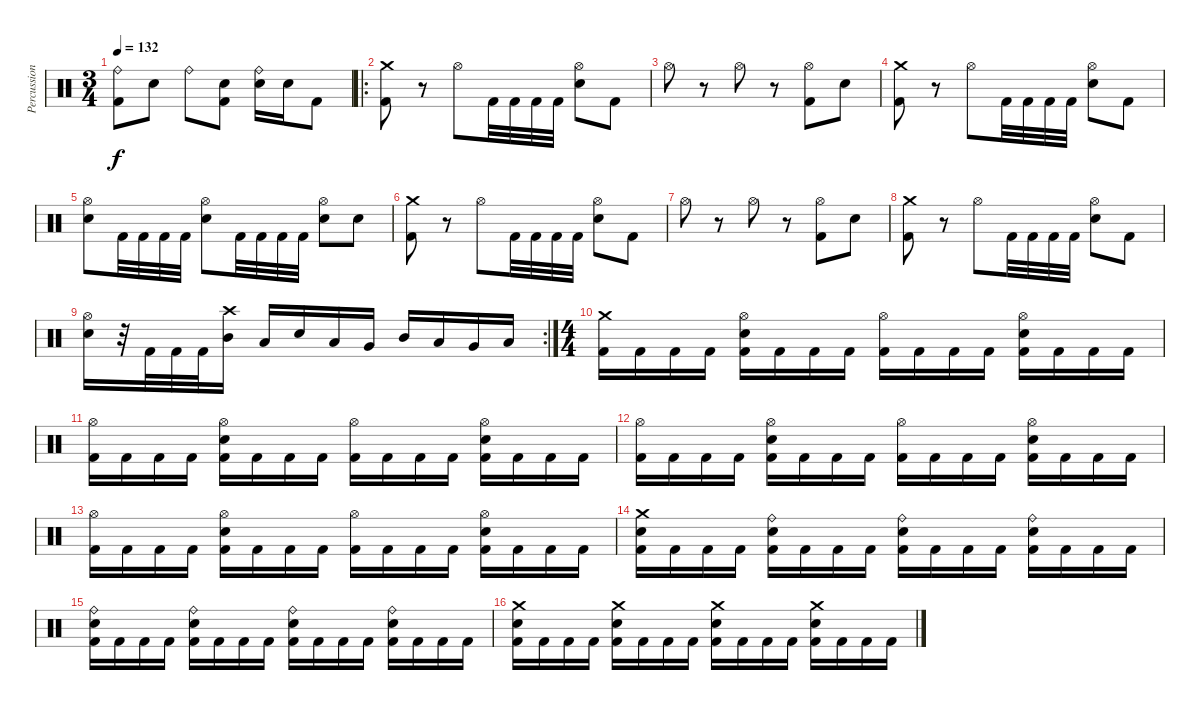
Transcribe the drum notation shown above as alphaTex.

\track ("Percussion" "Percussion") {instrument percussion}
\staff {score}
\articulation defaults
\ts (3 4)
\tempo 132
\clef neutral
\ks c
("Ride (bell)" "Kick (hit) 2").8{dy f} "Electric Snare (hit)".8 "Ride (bell)".8 ("Electric Snare (hit)" "Kick (hit) 2").8 ("Ride (bell)" "Electric Snare (hit)").16 "Electric Snare (hit)".16 "Kick (hit) 2".8 |
\ro
("Crash medium (hit)" "Kick (hit) 2").8 r.8 "Hi-Hat (open)".8 "Kick (hit) 2".32 "Kick (hit) 2".32 "Kick (hit) 2".32 "Kick (hit) 2".32 ("Hi-Hat (open)" "Electric Snare (hit)").8 "Kick (hit) 2".8 |
"Hi-Hat (open)".8 r.8 "Hi-Hat (open)".8 r.8 ("Hi-Hat (open)" "Kick (hit) 2").8 "Electric Snare (hit)".8 |
("Crash medium (hit)" "Kick (hit) 2").8 r.8 "Hi-Hat (open)".8 "Kick (hit) 2".32 "Kick (hit) 2".32 "Kick (hit) 2".32 "Kick (hit) 2".32 ("Hi-Hat (open)" "Electric Snare (hit)").8 "Kick (hit) 2".8 |
("Hi-Hat (open)" "Electric Snare (hit)").8 "Kick (hit) 2".32 "Kick (hit) 2".32 "Kick (hit) 2".32 "Kick (hit) 2".32 ("Hi-Hat (open)" "Electric Snare (hit)").8 "Kick (hit) 2".32 "Kick (hit) 2".32 "Kick (hit) 2".32 "Kick (hit) 2".32 ("Hi-Hat (open)" "Electric Snare (hit)").8 "Electric Snare (hit)".8 |
("Crash medium (hit)" "Kick (hit) 2").8 r.8 "Hi-Hat (open)".8 "Kick (hit) 2".32 "Kick (hit) 2".32 "Kick (hit) 2".32 "Kick (hit) 2".32 ("Hi-Hat (open)" "Electric Snare (hit)").8 "Kick (hit) 2".8 |
"Hi-Hat (open)".8 r.8 "Hi-Hat (open)".8 r.8 ("Hi-Hat (open)" "Kick (hit) 2").8 "Electric Snare (hit)".8 |
("Crash medium (hit)" "Kick (hit) 2").8 r.8 "Hi-Hat (open)".8 "Kick (hit) 2".32 "Kick (hit) 2".32 "Kick (hit) 2".32 "Kick (hit) 2".32 ("Hi-Hat (open)" "Electric Snare (hit)").8 "Kick (hit) 2".8 |
\rc 2
("Hi-Hat (open)" "Electric Snare (hit)").16 r.32 "Kick (hit) 2".32 "Kick (hit) 2".32 "Kick (hit) 2".32 ("Crash high (hit)" "Mid Tom (hit)").16 "Low Tom (hit)".16 "Electric Snare (hit)".16 "Low Tom (hit)".16 "Very Low Tom (hit)".16 "Mid Tom (hit)".16 "Low Tom (hit)".16 "Very Low Tom (hit)".16 "Low Floor Tom (hit)".16 |
\ts (4 4)
("Crash medium (hit)" "Kick (hit) 2").16 "Kick (hit) 2".16 "Kick (hit) 2".16 "Kick (hit) 2".16 ("Hi-Hat (open)" "Electric Snare (hit)" "Kick (hit) 2").16 "Kick (hit) 2".16 "Kick (hit) 2".16 "Kick (hit) 2".16 ("Hi-Hat (open)" "Kick (hit) 2").16 "Kick (hit) 2".16 "Kick (hit) 2".16 "Kick (hit) 2".16 ("Hi-Hat (open)" "Electric Snare (hit)" "Kick (hit) 2").16 "Kick (hit) 2".16 "Kick (hit) 2".16 "Kick (hit) 2".16 |
("Hi-Hat (open)" "Kick (hit) 2").16 "Kick (hit) 2".16 "Kick (hit) 2".16 "Kick (hit) 2".16 ("Hi-Hat (open)" "Electric Snare (hit)" "Kick (hit) 2").16 "Kick (hit) 2".16 "Kick (hit) 2".16 "Kick (hit) 2".16 ("Hi-Hat (open)" "Kick (hit) 2").16 "Kick (hit) 2".16 "Kick (hit) 2".16 "Kick (hit) 2".16 ("Hi-Hat (open)" "Electric Snare (hit)" "Kick (hit) 2").16 "Kick (hit) 2".16 "Kick (hit) 2".16 "Kick (hit) 2".16 |
("Hi-Hat (open)" "Kick (hit) 2").16 "Kick (hit) 2".16 "Kick (hit) 2".16 "Kick (hit) 2".16 ("Hi-Hat (open)" "Electric Snare (hit)" "Kick (hit) 2").16 "Kick (hit) 2".16 "Kick (hit) 2".16 "Kick (hit) 2".16 ("Hi-Hat (open)" "Kick (hit) 2").16 "Kick (hit) 2".16 "Kick (hit) 2".16 "Kick (hit) 2".16 ("Hi-Hat (open)" "Electric Snare (hit)" "Kick (hit) 2").16 "Kick (hit) 2".16 "Kick (hit) 2".16 "Kick (hit) 2".16 |
("Hi-Hat (open)" "Kick (hit) 2").16 "Kick (hit) 2".16 "Kick (hit) 2".16 "Kick (hit) 2".16 ("Hi-Hat (open)" "Electric Snare (hit)" "Kick (hit) 2").16 "Kick (hit) 2".16 "Kick (hit) 2".16 "Kick (hit) 2".16 ("Hi-Hat (open)" "Kick (hit) 2").16 "Kick (hit) 2".16 "Kick (hit) 2".16 "Kick (hit) 2".16 ("Hi-Hat (open)" "Electric Snare (hit)" "Kick (hit) 2").16 "Kick (hit) 2".16 "Kick (hit) 2".16 "Kick (hit) 2".16 |
("Crash medium (hit)" "Electric Snare (hit)" "Kick (hit) 2").16 "Kick (hit) 2".16 "Kick (hit) 2".16 "Kick (hit) 2".16 ("Ride (bell)" "Electric Snare (hit)" "Kick (hit) 2").16 "Kick (hit) 2".16 "Kick (hit) 2".16 "Kick (hit) 2".16 ("Ride (bell)" "Electric Snare (hit)" "Kick (hit) 2").16 "Kick (hit) 2".16 "Kick (hit) 2".16 "Kick (hit) 2".16 ("Ride (bell)" "Electric Snare (hit)" "Kick (hit) 2").16 "Kick (hit) 2".16 "Kick (hit) 2".16 "Kick (hit) 2".16 |
("Ride (bell)" "Electric Snare (hit)" "Kick (hit) 2").16 "Kick (hit) 2".16 "Kick (hit) 2".16 "Kick (hit) 2".16 ("Ride (bell)" "Electric Snare (hit)" "Kick (hit) 2").16 "Kick (hit) 2".16 "Kick (hit) 2".16 "Kick (hit) 2".16 ("Ride (bell)" "Electric Snare (hit)" "Kick (hit) 2").16 "Kick (hit) 2".16 "Kick (hit) 2".16 "Kick (hit) 2".16 ("Ride (bell)" "Electric Snare (hit)" "Kick (hit) 2").16 "Kick (hit) 2".16 "Kick (hit) 2".16 "Kick (hit) 2".16 |
("Crash medium (hit)" "Electric Snare (hit)" "Kick (hit) 2").16 "Kick (hit) 2".16 "Kick (hit) 2".16 "Kick (hit) 2".16 ("Crash medium (hit)" "Electric Snare (hit)" "Kick (hit) 2").16 "Kick (hit) 2".16 "Kick (hit) 2".16 "Kick (hit) 2".16 ("Crash medium (hit)" "Electric Snare (hit)" "Kick (hit) 2").16 "Kick (hit) 2".16 "Kick (hit) 2".16 "Kick (hit) 2".16 ("Crash medium (hit)" "Electric Snare (hit)" "Kick (hit) 2").16 "Kick (hit) 2".16 "Kick (hit) 2".16 "Kick (hit) 2".16
